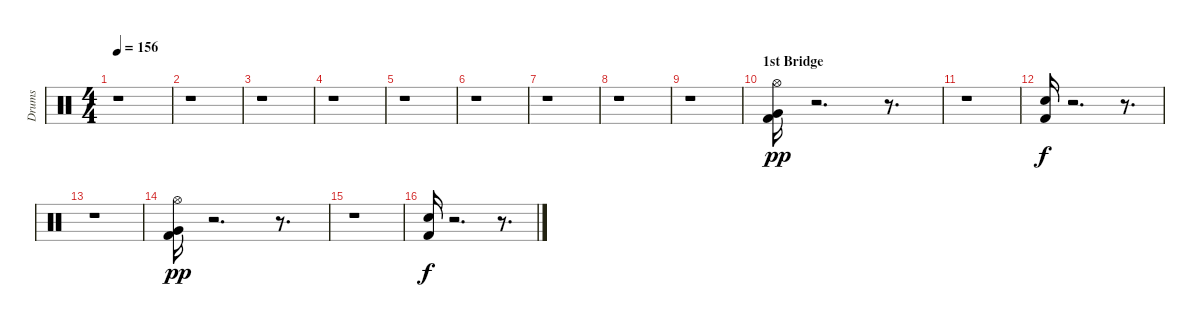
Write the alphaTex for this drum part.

\track ("Drums" "Drums") {instrument percussion}
\staff {score}
\articulation defaults
\ts (4 4)
\tempo 156
\clef neutral
\ks c
r.1{dy f} |
r.1 |
r.1 |
r.1 |
r.1 |
r.1 |
r.1 |
r.1 |
r.1 |
\section ("" "1st Bridge")
("Kick (hit) 2" "Very Low Tom (hit)" "Hi-Hat (open)").16{dy pp} r.2{d} r.8{d} |
r.1 |
("Kick (hit) 2" "Electric Snare (hit)").16{dy f} r.2{d} r.8{d} |
r.1 |
("Kick (hit) 2" "Very Low Tom (hit)" "Hi-Hat (open)").16{dy pp} r.2{d} r.8{d} |
r.1 |
("Kick (hit) 2" "Electric Snare (hit)").16{dy f} r.2{d} r.8{d}
